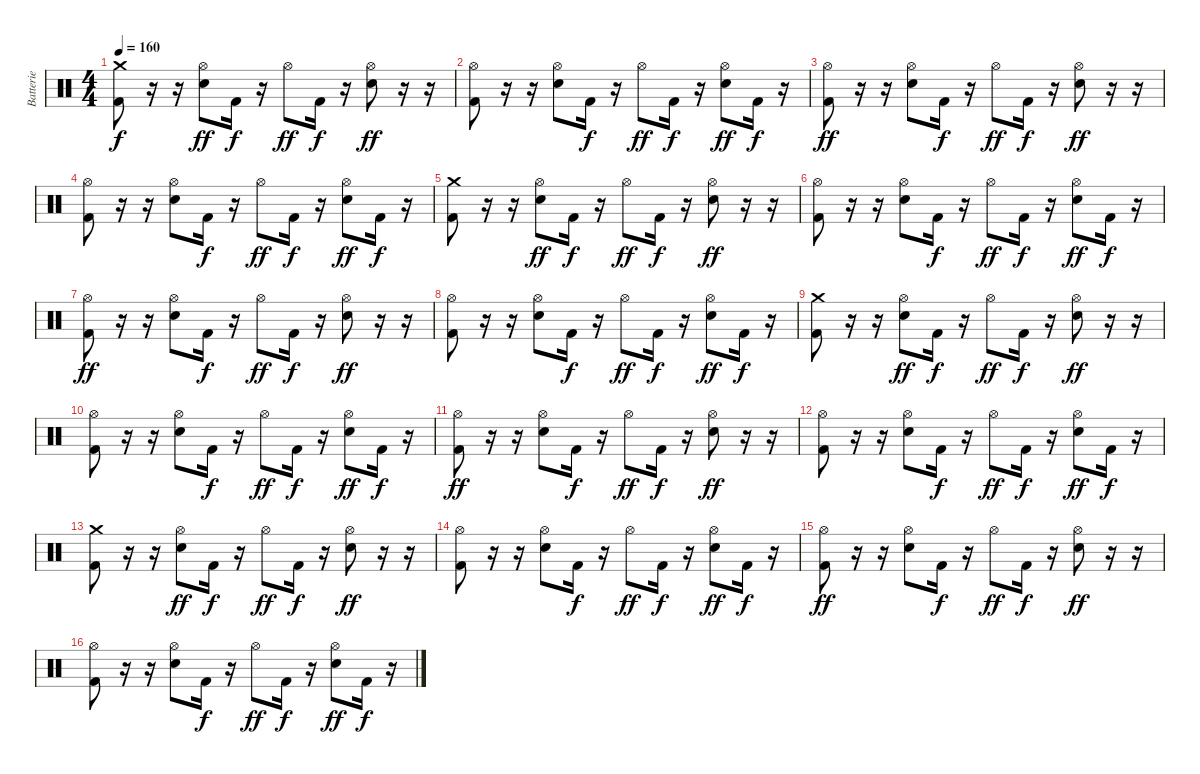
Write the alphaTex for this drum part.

\track ("Batterie" "Batterie") {instrument percussion}
\staff {score}
\articulation defaults
\ts (4 4)
\tempo 160
\clef neutral
\ks c
("Crash medium (hit)" "Kick (hit) 2").8{dy f} r.16 r.16 ("Hi-Hat (open)" "Snare (hit) 2").8{dy ff} "Kick (hit) 2".16{dy f} r.16 "Hi-Hat (open)".8{dy ff} "Kick (hit) 2".16{dy f} r.16 ("Hi-Hat (open)" "Snare (hit) 2").8{dy ff} r.16 r.16 |
("Hi-Hat (open)" "Kick (hit) 2").8 r.16 r.16 ("Hi-Hat (open)" "Snare (hit) 2").8 "Kick (hit) 2".16{dy f} r.16 "Hi-Hat (open)".8{dy ff} "Kick (hit) 2".16{dy f} r.16 ("Hi-Hat (open)" "Snare (hit) 2").8{dy ff} "Kick (hit) 2".16{dy f} r.16 |
("Hi-Hat (open)" "Kick (hit) 2").8{dy ff} r.16 r.16 ("Hi-Hat (open)" "Snare (hit) 2").8 "Kick (hit) 2".16{dy f} r.16 "Hi-Hat (open)".8{dy ff} "Kick (hit) 2".16{dy f} r.16 ("Hi-Hat (open)" "Snare (hit) 2").8{dy ff} r.16 r.16 |
("Hi-Hat (open)" "Kick (hit) 2").8 r.16 r.16 ("Hi-Hat (open)" "Snare (hit) 2").8 "Kick (hit) 2".16{dy f} r.16 "Hi-Hat (open)".8{dy ff} "Kick (hit) 2".16{dy f} r.16 ("Hi-Hat (open)" "Snare (hit) 2").8{dy ff} "Kick (hit) 2".16{dy f} r.16 |
("Crash medium (hit)" "Kick (hit) 2").8 r.16 r.16 ("Hi-Hat (open)" "Snare (hit) 2").8{dy ff} "Kick (hit) 2".16{dy f} r.16 "Hi-Hat (open)".8{dy ff} "Kick (hit) 2".16{dy f} r.16 ("Hi-Hat (open)" "Snare (hit) 2").8{dy ff} r.16 r.16 |
("Hi-Hat (open)" "Kick (hit) 2").8 r.16 r.16 ("Hi-Hat (open)" "Snare (hit) 2").8 "Kick (hit) 2".16{dy f} r.16 "Hi-Hat (open)".8{dy ff} "Kick (hit) 2".16{dy f} r.16 ("Hi-Hat (open)" "Snare (hit) 2").8{dy ff} "Kick (hit) 2".16{dy f} r.16 |
("Hi-Hat (open)" "Kick (hit) 2").8{dy ff} r.16 r.16 ("Hi-Hat (open)" "Snare (hit) 2").8 "Kick (hit) 2".16{dy f} r.16 "Hi-Hat (open)".8{dy ff} "Kick (hit) 2".16{dy f} r.16 ("Hi-Hat (open)" "Snare (hit) 2").8{dy ff} r.16 r.16 |
("Hi-Hat (open)" "Kick (hit) 2").8 r.16 r.16 ("Hi-Hat (open)" "Snare (hit) 2").8 "Kick (hit) 2".16{dy f} r.16 "Hi-Hat (open)".8{dy ff} "Kick (hit) 2".16{dy f} r.16 ("Hi-Hat (open)" "Snare (hit) 2").8{dy ff} "Kick (hit) 2".16{dy f} r.16 |
("Crash medium (hit)" "Kick (hit) 2").8 r.16 r.16 ("Hi-Hat (open)" "Snare (hit) 2").8{dy ff} "Kick (hit) 2".16{dy f} r.16 "Hi-Hat (open)".8{dy ff} "Kick (hit) 2".16{dy f} r.16 ("Hi-Hat (open)" "Snare (hit) 2").8{dy ff} r.16 r.16 |
("Hi-Hat (open)" "Kick (hit) 2").8 r.16 r.16 ("Hi-Hat (open)" "Snare (hit) 2").8 "Kick (hit) 2".16{dy f} r.16 "Hi-Hat (open)".8{dy ff} "Kick (hit) 2".16{dy f} r.16 ("Hi-Hat (open)" "Snare (hit) 2").8{dy ff} "Kick (hit) 2".16{dy f} r.16 |
("Hi-Hat (open)" "Kick (hit) 2").8{dy ff} r.16 r.16 ("Hi-Hat (open)" "Snare (hit) 2").8 "Kick (hit) 2".16{dy f} r.16 "Hi-Hat (open)".8{dy ff} "Kick (hit) 2".16{dy f} r.16 ("Hi-Hat (open)" "Snare (hit) 2").8{dy ff} r.16 r.16 |
("Hi-Hat (open)" "Kick (hit) 2").8 r.16 r.16 ("Hi-Hat (open)" "Snare (hit) 2").8 "Kick (hit) 2".16{dy f} r.16 "Hi-Hat (open)".8{dy ff} "Kick (hit) 2".16{dy f} r.16 ("Hi-Hat (open)" "Snare (hit) 2").8{dy ff} "Kick (hit) 2".16{dy f} r.16 |
("Crash medium (hit)" "Kick (hit) 2").8 r.16 r.16 ("Hi-Hat (open)" "Snare (hit) 2").8{dy ff} "Kick (hit) 2".16{dy f} r.16 "Hi-Hat (open)".8{dy ff} "Kick (hit) 2".16{dy f} r.16 ("Hi-Hat (open)" "Snare (hit) 2").8{dy ff} r.16 r.16 |
("Hi-Hat (open)" "Kick (hit) 2").8 r.16 r.16 ("Hi-Hat (open)" "Snare (hit) 2").8 "Kick (hit) 2".16{dy f} r.16 "Hi-Hat (open)".8{dy ff} "Kick (hit) 2".16{dy f} r.16 ("Hi-Hat (open)" "Snare (hit) 2").8{dy ff} "Kick (hit) 2".16{dy f} r.16 |
("Hi-Hat (open)" "Kick (hit) 2").8{dy ff} r.16 r.16 ("Hi-Hat (open)" "Snare (hit) 2").8 "Kick (hit) 2".16{dy f} r.16 "Hi-Hat (open)".8{dy ff} "Kick (hit) 2".16{dy f} r.16 ("Hi-Hat (open)" "Snare (hit) 2").8{dy ff} r.16 r.16 |
("Hi-Hat (open)" "Kick (hit) 2").8 r.16 r.16 ("Hi-Hat (open)" "Snare (hit) 2").8 "Kick (hit) 2".16{dy f} r.16 "Hi-Hat (open)".8{dy ff} "Kick (hit) 2".16{dy f} r.16 ("Hi-Hat (open)" "Snare (hit) 2").8{dy ff} "Kick (hit) 2".16{dy f} r.16
